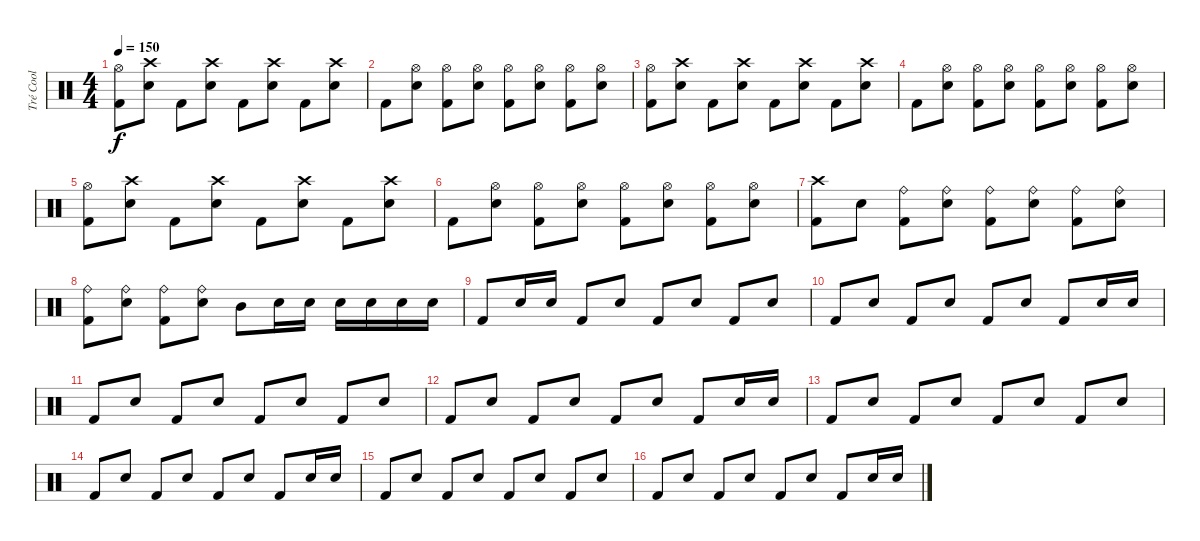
\track ("Tré Cool" "Tré Cool") {instrument percussion}
\staff {score}
\articulation defaults
\ts (4 4)
\tempo 150
\clef neutral
\ks c
("Hi-Hat (open)" "Kick (hit) 2").8{dy f} ("Crash high (hit)" "Electric Snare (hit)").8 "Kick (hit) 2".8 ("Crash high (hit)" "Electric Snare (hit)").8 "Kick (hit) 2".8 ("Crash high (hit)" "Electric Snare (hit)").8 "Kick (hit) 2".8 ("Crash high (hit)" "Electric Snare (hit)").8 |
"Kick (hit) 2".8 ("Hi-Hat (open)" "Electric Snare (hit)").8 ("Hi-Hat (open)" "Kick (hit) 2").8 ("Hi-Hat (open)" "Electric Snare (hit)").8 ("Hi-Hat (open)" "Kick (hit) 2").8 ("Hi-Hat (open)" "Electric Snare (hit)").8 ("Hi-Hat (open)" "Kick (hit) 2").8 ("Hi-Hat (open)" "Electric Snare (hit)").8 |
("Hi-Hat (open)" "Kick (hit) 2").8 ("Crash high (hit)" "Electric Snare (hit)").8 "Kick (hit) 2".8 ("Crash high (hit)" "Electric Snare (hit)").8 "Kick (hit) 2".8 ("Crash high (hit)" "Electric Snare (hit)").8 "Kick (hit) 2".8 ("Crash high (hit)" "Electric Snare (hit)").8 |
"Kick (hit) 2".8 ("Hi-Hat (open)" "Electric Snare (hit)").8 ("Hi-Hat (open)" "Kick (hit) 2").8 ("Hi-Hat (open)" "Electric Snare (hit)").8 ("Hi-Hat (open)" "Kick (hit) 2").8 ("Hi-Hat (open)" "Electric Snare (hit)").8 ("Hi-Hat (open)" "Kick (hit) 2").8 ("Hi-Hat (open)" "Electric Snare (hit)").8 |
("Hi-Hat (open)" "Kick (hit) 2").8 ("Crash high (hit)" "Electric Snare (hit)").8 "Kick (hit) 2".8 ("Crash high (hit)" "Electric Snare (hit)").8 "Kick (hit) 2".8 ("Crash high (hit)" "Electric Snare (hit)").8 "Kick (hit) 2".8 ("Crash high (hit)" "Electric Snare (hit)").8 |
"Kick (hit) 2".8 ("Hi-Hat (open)" "Electric Snare (hit)").8 ("Hi-Hat (open)" "Kick (hit) 2").8 ("Hi-Hat (open)" "Electric Snare (hit)").8 ("Hi-Hat (open)" "Kick (hit) 2").8 ("Hi-Hat (open)" "Electric Snare (hit)").8 ("Hi-Hat (open)" "Kick (hit) 2").8 ("Hi-Hat (open)" "Electric Snare (hit)").8 |
("Crash high (hit)" "Kick (hit) 2").8 "Electric Snare (hit)".8 ("Ride (bell)" "Kick (hit) 2").8 ("Ride (bell)" "Electric Snare (hit)").8 ("Ride (bell)" "Kick (hit) 2").8 ("Ride (bell)" "Electric Snare (hit)").8 ("Ride (bell)" "Kick (hit) 2").8 ("Ride (bell)" "Electric Snare (hit)").8 |
("Ride (bell)" "Kick (hit) 2").8 ("Ride (bell)" "Electric Snare (hit)").8 ("Ride (bell)" "Kick (hit) 2").8 ("Ride (bell)" "Electric Snare (hit)").8 "Mid Tom (hit)".8 "Electric Snare (hit)".16 "Electric Snare (hit)".16 "Electric Snare (hit)".16 "Electric Snare (hit)".16 "Electric Snare (hit)".16 "Electric Snare (hit)".16 |
"Kick (hit) 2".8 "Electric Snare (hit)".16 "Electric Snare (hit)".16 "Kick (hit) 2".8 "Electric Snare (hit)".8 "Kick (hit) 2".8 "Electric Snare (hit)".8 "Kick (hit) 2".8 "Electric Snare (hit)".8 |
"Kick (hit) 2".8 "Electric Snare (hit)".8 "Kick (hit) 2".8 "Electric Snare (hit)".8 "Kick (hit) 2".8 "Electric Snare (hit)".8 "Kick (hit) 2".8 "Electric Snare (hit)".16 "Electric Snare (hit)".16 |
"Kick (hit) 2".8 "Electric Snare (hit)".8 "Kick (hit) 2".8 "Electric Snare (hit)".8 "Kick (hit) 2".8 "Electric Snare (hit)".8 "Kick (hit) 2".8 "Electric Snare (hit)".8 |
"Kick (hit) 2".8 "Electric Snare (hit)".8 "Kick (hit) 2".8 "Electric Snare (hit)".8 "Kick (hit) 2".8 "Electric Snare (hit)".8 "Kick (hit) 2".8 "Electric Snare (hit)".16 "Electric Snare (hit)".16 |
"Kick (hit) 2".8 "Electric Snare (hit)".8 "Kick (hit) 2".8 "Electric Snare (hit)".8 "Kick (hit) 2".8 "Electric Snare (hit)".8 "Kick (hit) 2".8 "Electric Snare (hit)".8 |
"Kick (hit) 2".8 "Electric Snare (hit)".8 "Kick (hit) 2".8 "Electric Snare (hit)".8 "Kick (hit) 2".8 "Electric Snare (hit)".8 "Kick (hit) 2".8 "Electric Snare (hit)".16 "Electric Snare (hit)".16 |
"Kick (hit) 2".8 "Electric Snare (hit)".8 "Kick (hit) 2".8 "Electric Snare (hit)".8 "Kick (hit) 2".8 "Electric Snare (hit)".8 "Kick (hit) 2".8 "Electric Snare (hit)".8 |
"Kick (hit) 2".8 "Electric Snare (hit)".8 "Kick (hit) 2".8 "Electric Snare (hit)".8 "Kick (hit) 2".8 "Electric Snare (hit)".8 "Kick (hit) 2".8 "Electric Snare (hit)".16 "Electric Snare (hit)".16
